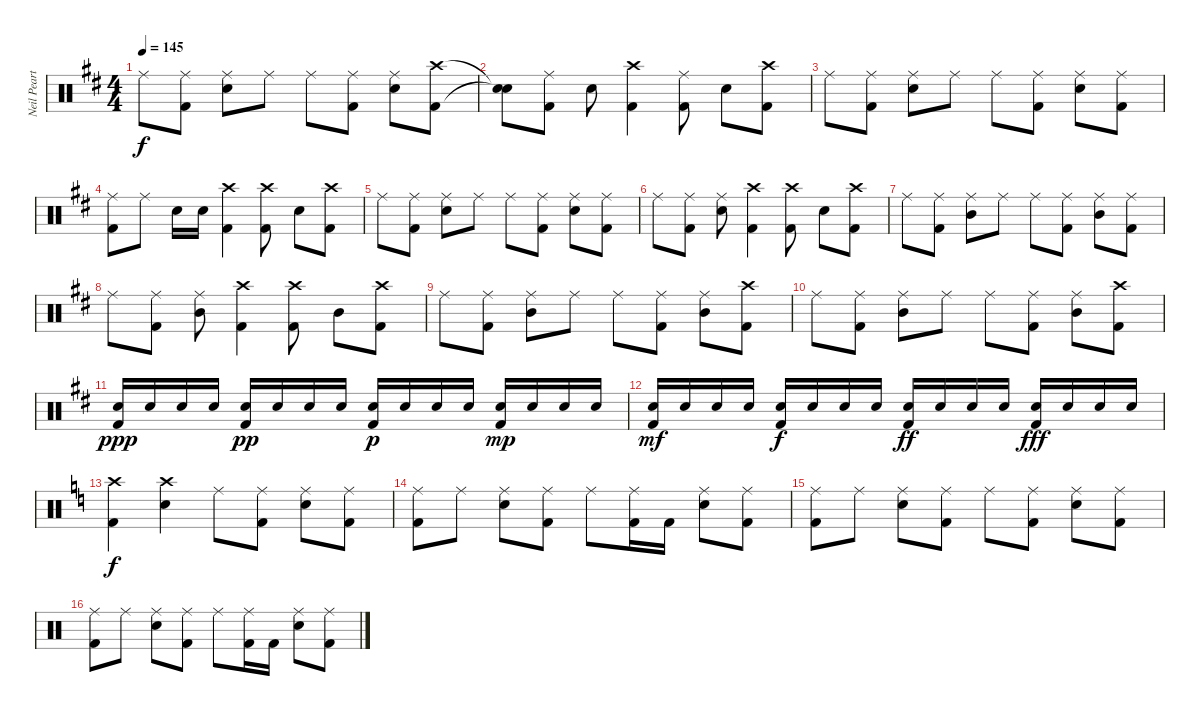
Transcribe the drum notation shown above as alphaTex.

\track ("Neil Peart" "Neil Peart") {instrument percussion}
\staff {score}
\articulation defaults
\ts (4 4)
\tempo 145
\clef neutral
\ks d "Ride (middle)".8{dy f}
("Ride (middle)" "Kick (hit) 2").8 ("Ride (middle)" "Snare (hit) 2").8 "Ride (middle)".8 "Ride (middle)".8 ("Ride (middle)" "Kick (hit) 2").8 ("Ride (middle)" "Snare (hit) 2").8 ("Crash high (hit)" "Kick (hit) 2").8 |
("Snare (hit)"{t} "Snare (hit)"{t}).8 ("Ride (middle)" "Kick (hit) 2").8 "Snare (hit) 2".8 ("Crash high (hit)" "Kick (hit) 2").4 ("Ride (middle)" "Kick (hit) 2").8 "Snare (hit) 2".8 ("Crash high (hit)" "Kick (hit) 2").8 |
"Ride (middle)".8 ("Ride (middle)" "Kick (hit) 2").8 ("Ride (middle)" "Snare (hit) 2").8 "Ride (middle)".8 "Ride (middle)".8 ("Ride (middle)" "Kick (hit) 2").8 ("Ride (middle)" "Snare (hit) 2").8 ("Ride (middle)" "Kick (hit) 2").8 |
("Ride (middle)" "Kick (hit) 2").8 "Ride (middle)".8 "Snare (hit) 2".16 "Snare (hit) 2".16 ("Crash high (hit)" "Kick (hit) 2").4 ("Crash high (hit)" "Kick (hit) 2").8 "Snare (hit) 2".8 ("Crash high (hit)" "Kick (hit) 2").8 |
"Ride (middle)".8 ("Ride (middle)" "Kick (hit) 2").8 ("Ride (middle)" "Snare (hit) 2").8 "Ride (middle)".8 "Ride (middle)".8 ("Ride (middle)" "Kick (hit) 2").8 ("Ride (middle)" "Snare (hit) 2").8 ("Ride (middle)" "Kick (hit) 2").8 |
"Ride (middle)".8 ("Ride (middle)" "Kick (hit) 2").8 ("Ride (middle)" "Snare (hit) 2").8 ("Crash high (hit)" "Kick (hit) 2").4 ("Crash high (hit)" "Kick (hit) 2").8 "Snare (hit) 2".8 ("Crash high (hit)" "Kick (hit) 2").8 |
"Ride (middle)".8 ("Ride (middle)" "Kick (hit) 2").8 ("Ride (middle)" "Mid Tom (hit)").8 "Ride (middle)".8 "Ride (middle)".8 ("Ride (middle)" "Kick (hit) 2").8 ("Ride (middle)" "Mid Tom (hit)").8 ("Ride (middle)" "Kick (hit) 2").8 |
"Ride (middle)".8 ("Ride (middle)" "Kick (hit) 2").8 ("Ride (middle)" "Mid Tom (hit)").8 ("Crash high (hit)" "Kick (hit) 2").4 ("Crash high (hit)" "Kick (hit) 2").8 "Mid Tom (hit)".8 ("Crash high (hit)" "Kick (hit) 2").8 |
"Ride (middle)".8 ("Ride (middle)" "Kick (hit) 2").8 ("Ride (middle)" "Mid Tom (hit)").8 "Ride (middle)".8 "Ride (middle)".8 ("Ride (middle)" "Kick (hit) 2").8 ("Ride (middle)" "Mid Tom (hit)").8 ("Crash high (hit)" "Kick (hit) 2").8 |
"Ride (middle)".8 ("Ride (middle)" "Kick (hit) 2").8 ("Ride (middle)" "Mid Tom (hit)").8 "Ride (middle)".8 "Ride (middle)".8 ("Ride (middle)" "Kick (hit) 2").8 ("Ride (middle)" "Mid Tom (hit)").8 ("Crash high (hit)" "Kick (hit) 2").8 |
("Snare (hit) 2" "Kick (hit) 2").16{dy ppp} "Snare (hit) 2".16 "Snare (hit) 2".16 "Snare (hit) 2".16 ("Snare (hit) 2" "Kick (hit) 2").16{dy pp} "Snare (hit) 2".16 "Snare (hit) 2".16 "Snare (hit) 2".16 ("Snare (hit) 2" "Kick (hit) 2").16{dy p} "Snare (hit) 2".16 "Snare (hit) 2".16 "Snare (hit) 2".16 ("Snare (hit) 2" "Kick (hit) 2").16{dy mp} "Snare (hit) 2".16 "Snare (hit) 2".16 "Snare (hit) 2".16 |
("Snare (hit) 2" "Kick (hit) 2").16{dy mf} "Snare (hit) 2".16 "Snare (hit) 2".16 "Snare (hit) 2".16 ("Snare (hit) 2" "Kick (hit) 2").16{dy f} "Snare (hit) 2".16 "Snare (hit) 2".16 "Snare (hit) 2".16 ("Snare (hit) 2" "Kick (hit) 2").16{dy ff} "Snare (hit) 2".16 "Snare (hit) 2".16 "Snare (hit) 2".16 ("Snare (hit) 2" "Kick (hit) 2").16{dy fff} "Snare (hit) 2".16 "Snare (hit) 2".16 "Snare (hit) 2".16 |
\ks c
("Crash high (hit)" "Kick (hit) 2").4{dy f} ("Crash high (hit)" "Snare (hit) 2").4 "Ride (middle)".8 ("Ride (middle)" "Kick (hit) 2").8 ("Ride (middle)" "Snare (hit) 2").8 ("Ride (middle)" "Kick (hit) 2").8 |
("Ride (middle)" "Kick (hit) 2").8 "Ride (middle)".8 ("Ride (middle)" "Snare (hit) 2").8 ("Ride (middle)" "Kick (hit) 2").8 "Ride (middle)".8 ("Ride (middle)" "Kick (hit) 2").16 "Kick (hit) 2".16 ("Ride (middle)" "Snare (hit) 2").8 ("Ride (middle)" "Kick (hit) 2").8 |
("Ride (middle)" "Kick (hit) 2").8 "Ride (middle)".8 ("Ride (middle)" "Snare (hit) 2").8 ("Ride (middle)" "Kick (hit) 2").8 "Ride (middle)".8 ("Ride (middle)" "Kick (hit) 2").8 ("Ride (middle)" "Snare (hit) 2").8 ("Ride (middle)" "Kick (hit) 2").8 |
("Ride (middle)" "Kick (hit) 2").8 "Ride (middle)".8 ("Ride (middle)" "Snare (hit) 2").8 ("Ride (middle)" "Kick (hit) 2").8 "Ride (middle)".8 ("Ride (middle)" "Kick (hit) 2").16 "Kick (hit) 2".16 ("Ride (middle)" "Snare (hit) 2").8 ("Ride (middle)" "Kick (hit) 2").8
